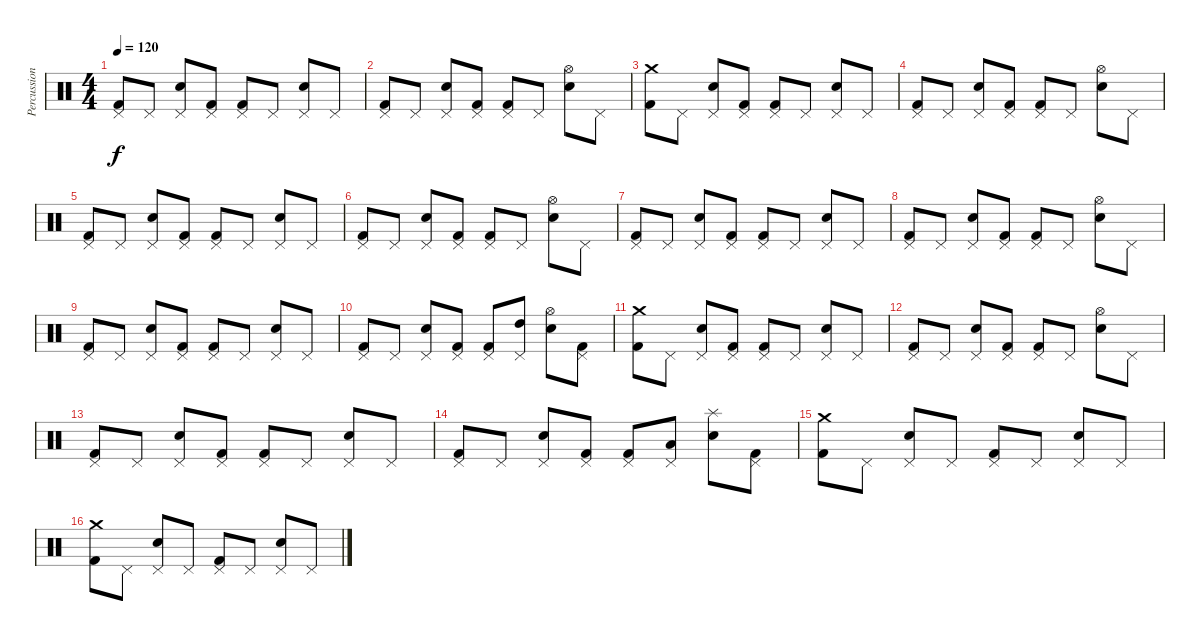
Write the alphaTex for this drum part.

\track ("Percussions" "Percussion") {instrument percussion}
\staff {score}
\articulation defaults
\ts (4 4)
\tempo 120
\clef neutral
\ks c
("Pedal Hi-Hat (hit)" "Kick (hit) 2").8{dy f} "Pedal Hi-Hat (hit)".8 ("Pedal Hi-Hat (hit)" "Snare (hit) 2").8 ("Pedal Hi-Hat (hit)" "Kick (hit) 2").8 ("Pedal Hi-Hat (hit)" "Kick (hit) 2").8 "Pedal Hi-Hat (hit)".8 ("Pedal Hi-Hat (hit)" "Snare (hit) 2").8 "Pedal Hi-Hat (hit)".8 |
("Pedal Hi-Hat (hit)" "Kick (hit) 2").8 "Pedal Hi-Hat (hit)".8 ("Pedal Hi-Hat (hit)" "Snare (hit) 2").8 ("Pedal Hi-Hat (hit)" "Kick (hit) 2").8 ("Pedal Hi-Hat (hit)" "Kick (hit) 2").8 "Pedal Hi-Hat (hit)".8 ("Hi-Hat (open)" "Snare (hit) 2").8 "Pedal Hi-Hat (hit)".8 |
("Crash medium (hit)" "Kick (hit) 2").8 "Pedal Hi-Hat (hit)".8 ("Pedal Hi-Hat (hit)" "Snare (hit) 2").8 ("Pedal Hi-Hat (hit)" "Kick (hit) 2").8 ("Pedal Hi-Hat (hit)" "Kick (hit) 2").8 "Pedal Hi-Hat (hit)".8 ("Pedal Hi-Hat (hit)" "Snare (hit) 2").8 "Pedal Hi-Hat (hit)".8 |
("Pedal Hi-Hat (hit)" "Kick (hit) 2").8 "Pedal Hi-Hat (hit)".8 ("Pedal Hi-Hat (hit)" "Snare (hit) 2").8 ("Pedal Hi-Hat (hit)" "Kick (hit) 2").8 ("Pedal Hi-Hat (hit)" "Kick (hit) 2").8 "Pedal Hi-Hat (hit)".8 ("Hi-Hat (open)" "Snare (hit) 2").8 "Pedal Hi-Hat (hit)".8 |
("Pedal Hi-Hat (hit)" "Kick (hit) 2").8 "Pedal Hi-Hat (hit)".8 ("Pedal Hi-Hat (hit)" "Snare (hit) 2").8 ("Pedal Hi-Hat (hit)" "Kick (hit) 2").8 ("Pedal Hi-Hat (hit)" "Kick (hit) 2").8 "Pedal Hi-Hat (hit)".8 ("Pedal Hi-Hat (hit)" "Snare (hit) 2").8 "Pedal Hi-Hat (hit)".8 |
("Pedal Hi-Hat (hit)" "Kick (hit) 2").8 "Pedal Hi-Hat (hit)".8 ("Pedal Hi-Hat (hit)" "Snare (hit) 2").8 ("Pedal Hi-Hat (hit)" "Kick (hit) 2").8 ("Pedal Hi-Hat (hit)" "Kick (hit) 2").8 "Pedal Hi-Hat (hit)".8 ("Hi-Hat (open)" "Snare (hit) 2").8 "Pedal Hi-Hat (hit)".8 |
("Pedal Hi-Hat (hit)" "Kick (hit) 2").8 "Pedal Hi-Hat (hit)".8 ("Pedal Hi-Hat (hit)" "Snare (hit) 2").8 ("Pedal Hi-Hat (hit)" "Kick (hit) 2").8 ("Pedal Hi-Hat (hit)" "Kick (hit) 2").8 "Pedal Hi-Hat (hit)".8 ("Pedal Hi-Hat (hit)" "Snare (hit) 2").8 "Pedal Hi-Hat (hit)".8 |
("Pedal Hi-Hat (hit)" "Kick (hit) 2").8 "Pedal Hi-Hat (hit)".8 ("Pedal Hi-Hat (hit)" "Snare (hit) 2").8 ("Pedal Hi-Hat (hit)" "Kick (hit) 2").8 ("Pedal Hi-Hat (hit)" "Kick (hit) 2").8 "Pedal Hi-Hat (hit)".8 ("Hi-Hat (open)" "Snare (hit) 2").8 "Pedal Hi-Hat (hit)".8 |
("Pedal Hi-Hat (hit)" "Kick (hit) 2").8 "Pedal Hi-Hat (hit)".8 ("Pedal Hi-Hat (hit)" "Snare (hit) 2").8 ("Pedal Hi-Hat (hit)" "Kick (hit) 2").8 ("Pedal Hi-Hat (hit)" "Kick (hit) 2").8 "Pedal Hi-Hat (hit)".8 ("Pedal Hi-Hat (hit)" "Snare (hit) 2").8 "Pedal Hi-Hat (hit)".8 |
("Pedal Hi-Hat (hit)" "Kick (hit) 2").8 "Pedal Hi-Hat (hit)".8 ("Pedal Hi-Hat (hit)" "Snare (hit) 2").8 ("Pedal Hi-Hat (hit)" "Kick (hit) 2").8 ("Pedal Hi-Hat (hit)" "Kick (hit) 2").8 ("Pedal Hi-Hat (hit)" "High Tom (hit)").8 ("Hi-Hat (open)" "Snare (hit) 2").8 ("Pedal Hi-Hat (hit)" "Kick (hit) 2").8 |
("Crash medium (hit)" "Kick (hit) 2").8 "Pedal Hi-Hat (hit)".8 ("Pedal Hi-Hat (hit)" "Snare (hit) 2").8 ("Pedal Hi-Hat (hit)" "Kick (hit) 2").8 ("Pedal Hi-Hat (hit)" "Kick (hit) 2").8 "Pedal Hi-Hat (hit)".8 ("Pedal Hi-Hat (hit)" "Snare (hit) 2").8 "Pedal Hi-Hat (hit)".8 |
("Pedal Hi-Hat (hit)" "Kick (hit) 2").8 "Pedal Hi-Hat (hit)".8 ("Pedal Hi-Hat (hit)" "Snare (hit) 2").8 ("Pedal Hi-Hat (hit)" "Kick (hit) 2").8 ("Pedal Hi-Hat (hit)" "Kick (hit) 2").8 "Pedal Hi-Hat (hit)".8 ("Hi-Hat (open)" "Snare (hit) 2").8 "Pedal Hi-Hat (hit)".8 |
("Pedal Hi-Hat (hit)" "Kick (hit) 2").8 "Pedal Hi-Hat (hit)".8 ("Pedal Hi-Hat (hit)" "Snare (hit) 2").8 ("Pedal Hi-Hat (hit)" "Kick (hit) 2").8 ("Pedal Hi-Hat (hit)" "Kick (hit) 2").8 "Pedal Hi-Hat (hit)".8 ("Pedal Hi-Hat (hit)" "Snare (hit) 2").8 "Pedal Hi-Hat (hit)".8 |
("Pedal Hi-Hat (hit)" "Kick (hit) 2").8 "Pedal Hi-Hat (hit)".8 ("Pedal Hi-Hat (hit)" "Snare (hit) 2").8 ("Pedal Hi-Hat (hit)" "Kick (hit) 2").8 ("Pedal Hi-Hat (hit)" "Kick (hit) 2").8 ("Pedal Hi-Hat (hit)" "Low Tom (hit)").8 ("Splash (hit)" "Snare (hit) 2").8 ("Pedal Hi-Hat (hit)" "Kick (hit) 2").8 |
("Crash medium (hit)" "Kick (hit) 2").8 "Pedal Hi-Hat (hit)".8 ("Pedal Hi-Hat (hit)" "Snare (hit) 2").8 "Pedal Hi-Hat (hit)".8 ("Pedal Hi-Hat (hit)" "Kick (hit) 2").8 "Pedal Hi-Hat (hit)".8 ("Pedal Hi-Hat (hit)" "Snare (hit) 2").8 "Pedal Hi-Hat (hit)".8 |
("Crash medium (hit)" "Kick (hit) 2").8 "Pedal Hi-Hat (hit)".8 ("Pedal Hi-Hat (hit)" "Snare (hit) 2").8 "Pedal Hi-Hat (hit)".8 ("Pedal Hi-Hat (hit)" "Kick (hit) 2").8 "Pedal Hi-Hat (hit)".8 ("Pedal Hi-Hat (hit)" "Snare (hit) 2").8 "Pedal Hi-Hat (hit)".8
